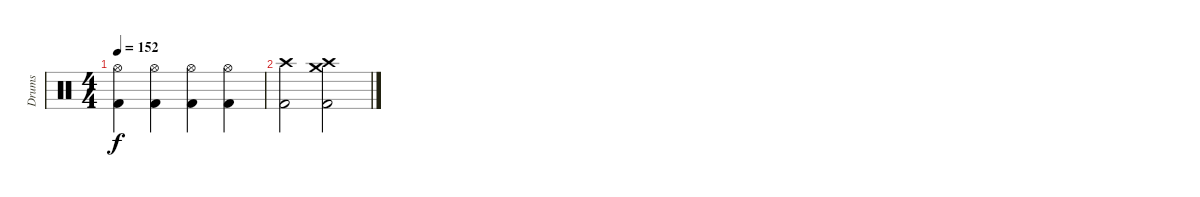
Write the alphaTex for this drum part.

\track ("Drums" "Drums") {instrument percussion}
\staff {score}
\articulation defaults
\ts (4 4)
\tempo 152
\clef neutral
\ks c
("Hi-Hat (open)" "Kick (hit) 2").4{dy f} ("Hi-Hat (open)" "Kick (hit) 2").4 ("Hi-Hat (open)" "Kick (hit) 2").4 ("Hi-Hat (open)" "Kick (hit) 2").4 |
("Crash high (hit)" "Kick (hit) 2").2 ("Crash high (hit)" "Crash medium (hit)" "Kick (hit) 2").2
